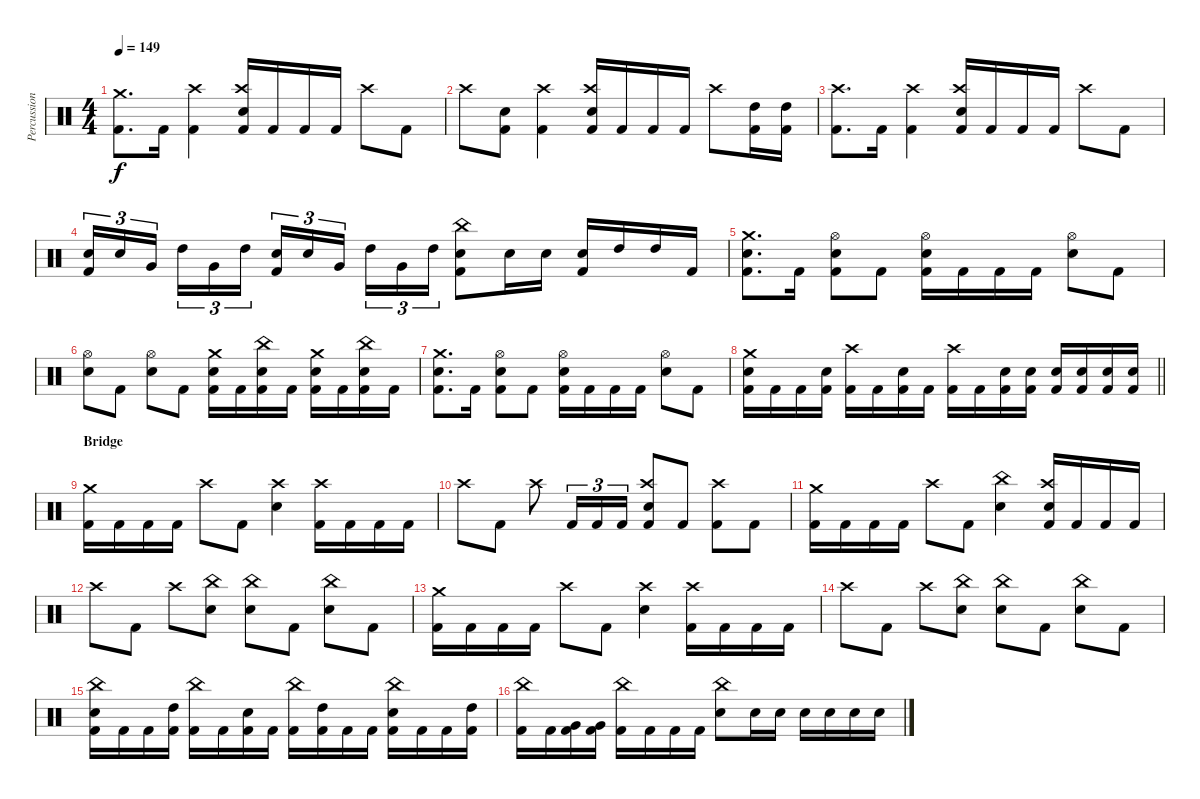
\track ("Percussions" "Percussion") {instrument percussion}
\staff {score}
\articulation defaults
\ts (4 4)
\tempo 149
\clef neutral
\ks c
("Crash medium (hit)" "Kick (hit) 2").8{d dy f} "Kick (hit) 2".16 ("Crash high (hit)" "Kick (hit) 2").4 ("Crash high (hit)" "Snare (hit) 2" "Kick (hit) 2").16 "Kick (hit) 2".16 "Kick (hit) 2".16 "Kick (hit) 2".16 "Crash high (hit)".8 "Kick (hit) 2".8 |
"Crash high (hit)".8 ("Snare (hit) 2" "Kick (hit) 2").8 ("Crash high (hit)" "Kick (hit) 2").4 ("Crash high (hit)" "Snare (hit) 2" "Kick (hit) 2").16 "Kick (hit) 2".16 "Kick (hit) 2".16 "Kick (hit) 2".16 "Crash high (hit)".8 ("High Tom (hit)" "Kick (hit) 2").16 ("High Tom (hit)" "Kick (hit) 2").16 |
("Crash high (hit)" "Kick (hit) 2").8{d} "Kick (hit) 2".16 ("Crash high (hit)" "Kick (hit) 2").4 ("Crash high (hit)" "Snare (hit) 2" "Kick (hit) 2").16 "Kick (hit) 2".16 "Kick (hit) 2".16 "Kick (hit) 2".16 "Crash high (hit)".8 "Kick (hit) 2".8 |
("Snare (hit) 2" "Kick (hit) 2").16{tu (3 2)} "Snare (hit) 2".16{tu (3 2)} "Very Low Tom (hit)".16{tu (3 2) beam splitsecondary} "High Tom (hit)".16{tu (3 2)} "Very Low Tom (hit)".16{tu (3 2)} "High Tom (hit)".16{tu (3 2)} ("Snare (hit) 2" "Kick (hit) 2").16{tu (3 2)} "Snare (hit) 2".16{tu (3 2)} "Very Low Tom (hit)".16{tu (3 2) beam splitsecondary} "High Tom (hit)".16{tu (3 2)} "Very Low Tom (hit)".16{tu (3 2)} "High Tom (hit)".16{tu (3 2)} ("China (hit)" "Snare (hit) 2" "Kick (hit) 2").8 "Snare (hit) 2".16 "Snare (hit) 2".16 ("Snare (hit) 2" "Kick (hit) 2").16 "High Tom (hit)".16 "High Tom (hit)".16 "Kick (hit) 2".16 |
("Crash medium (hit)" "Snare (hit) 2" "Kick (hit) 2").8{d} "Kick (hit) 2".16 ("Hi-Hat (open)" "Snare (hit) 2" "Kick (hit) 2").8 "Kick (hit) 2".8 ("Hi-Hat (open)" "Snare (hit) 2" "Kick (hit) 2").16 "Kick (hit) 2".16 "Kick (hit) 2".16 "Kick (hit) 2".16 ("Hi-Hat (open)" "Snare (hit) 2").8 "Kick (hit) 2".8 |
("Hi-Hat (open)" "Snare (hit) 2").8 "Kick (hit) 2".8 ("Hi-Hat (open)" "Snare (hit) 2").8 "Kick (hit) 2".8 ("Crash medium (hit)" "Snare (hit) 2" "Kick (hit) 2").16 "Kick (hit) 2".16 ("China (hit)" "Snare (hit) 2" "Kick (hit) 2").16 "Kick (hit) 2".16 ("Crash medium (hit)" "Snare (hit) 2" "Kick (hit) 2").16 "Kick (hit) 2".16 ("China (hit)" "Snare (hit) 2" "Kick (hit) 2").16 "Kick (hit) 2".16 |
("Crash medium (hit)" "Snare (hit) 2" "Kick (hit) 2").8{d} "Kick (hit) 2".16 ("Hi-Hat (open)" "Snare (hit) 2" "Kick (hit) 2").8 "Kick (hit) 2".8 ("Hi-Hat (open)" "Snare (hit) 2" "Kick (hit) 2").16 "Kick (hit) 2".16 "Kick (hit) 2".16 "Kick (hit) 2".16 ("Hi-Hat (open)" "Snare (hit) 2").8 "Kick (hit) 2".8 |
\barLineRight lightlight
("Crash medium (hit)" "Snare (hit) 2" "Kick (hit) 2").16 "Kick (hit) 2".16 "Kick (hit) 2".16 ("Snare (hit) 2" "Kick (hit) 2").16 ("Crash high (hit)" "Kick (hit) 2").16 "Kick (hit) 2".16 ("Snare (hit) 2" "Kick (hit) 2").16 "Kick (hit) 2".16 ("Crash high (hit)" "Kick (hit) 2").16 "Kick (hit) 2".16 ("Snare (hit) 2" "Kick (hit) 2").16 ("Snare (hit) 2" "Kick (hit) 2").16 ("Snare (hit) 2" "Kick (hit) 2").16 ("Snare (hit) 2" "Kick (hit) 2").16 ("Snare (hit) 2" "Kick (hit) 2").16 ("Snare (hit) 2" "Kick (hit) 2").16 |
\section ("" "Bridge")
("Crash medium (hit)" "Kick (hit) 2").16 "Kick (hit) 2".16 "Kick (hit) 2".16 "Kick (hit) 2".16 "Crash high (hit)".8 "Kick (hit) 2".8 ("Crash high (hit)" "Snare (hit) 2").4 ("Crash high (hit)" "Kick (hit) 2").16 "Kick (hit) 2".16 "Kick (hit) 2".16 "Kick (hit) 2".16 |
"Crash high (hit)".8 "Kick (hit) 2".8 "Crash high (hit)".8 "Kick (hit) 2".16{tu (3 2)} "Kick (hit) 2".16{tu (3 2)} "Kick (hit) 2".16{tu (3 2)} ("Crash high (hit)" "Snare (hit) 2" "Kick (hit) 2").8 "Kick (hit) 2".8 ("Crash high (hit)" "Kick (hit) 2").8 "Kick (hit) 2".8 |
("Crash medium (hit)" "Kick (hit) 2").16 "Kick (hit) 2".16 "Kick (hit) 2".16 "Kick (hit) 2".16 "Crash high (hit)".8 "Kick (hit) 2".8 ("China (hit)" "Snare (hit) 2").4 ("Crash high (hit)" "Snare (hit) 2" "Kick (hit) 2").16 "Kick (hit) 2".16 "Kick (hit) 2".16 "Kick (hit) 2".16 |
"Crash high (hit)".8 "Kick (hit) 2".8 "Crash high (hit)".8 ("China (hit)" "Snare (hit) 2").8 ("China (hit)" "Snare (hit) 2").8 "Kick (hit) 2".8 ("China (hit)" "Snare (hit) 2").8 "Kick (hit) 2".8 |
("Crash medium (hit)" "Kick (hit) 2").16 "Kick (hit) 2".16 "Kick (hit) 2".16 "Kick (hit) 2".16 "Crash high (hit)".8 "Kick (hit) 2".8 ("Crash high (hit)" "Snare (hit) 2").4 ("Crash high (hit)" "Kick (hit) 2").16 "Kick (hit) 2".16 "Kick (hit) 2".16 "Kick (hit) 2".16 |
"Crash high (hit)".8 "Kick (hit) 2".8 "Crash high (hit)".8 ("China (hit)" "Snare (hit) 2").8 ("China (hit)" "Snare (hit) 2").8 "Kick (hit) 2".8 ("China (hit)" "Snare (hit) 2").8 "Kick (hit) 2".8 |
("China (hit)" "Snare (hit) 2" "Kick (hit) 2").16 "Kick (hit) 2".16 "Kick (hit) 2".16 ("High Tom (hit)" "Kick (hit) 2").16 ("China (hit)" "Kick (hit) 2").16 "Kick (hit) 2".16 ("Snare (hit) 2" "Kick (hit) 2").16 "Kick (hit) 2".16 ("China (hit)" "Kick (hit) 2").16 ("High Tom (hit)" "Kick (hit) 2").16 "Kick (hit) 2".16 "Kick (hit) 2".16 ("China (hit)" "Snare (hit) 2" "Kick (hit) 2").16 "Kick (hit) 2".16 "Kick (hit) 2".16 ("High Tom (hit)" "Kick (hit) 2").16 |
("China (hit)" "Kick (hit) 2").16 "Kick (hit) 2".16 ("Very Low Tom (hit)" "Kick (hit) 2").16 ("Very Low Tom (hit)" "Kick (hit) 2").16 ("China (hit)" "Kick (hit) 2").16 "Kick (hit) 2".16 "Kick (hit) 2".16 "Kick (hit) 2".16 ("China (hit)" "Snare (hit) 2").8 "Snare (hit) 2".16 "Snare (hit) 2".16 "Snare (hit) 2".16 "Snare (hit) 2".16 "Snare (hit) 2".16 "Snare (hit) 2".16
